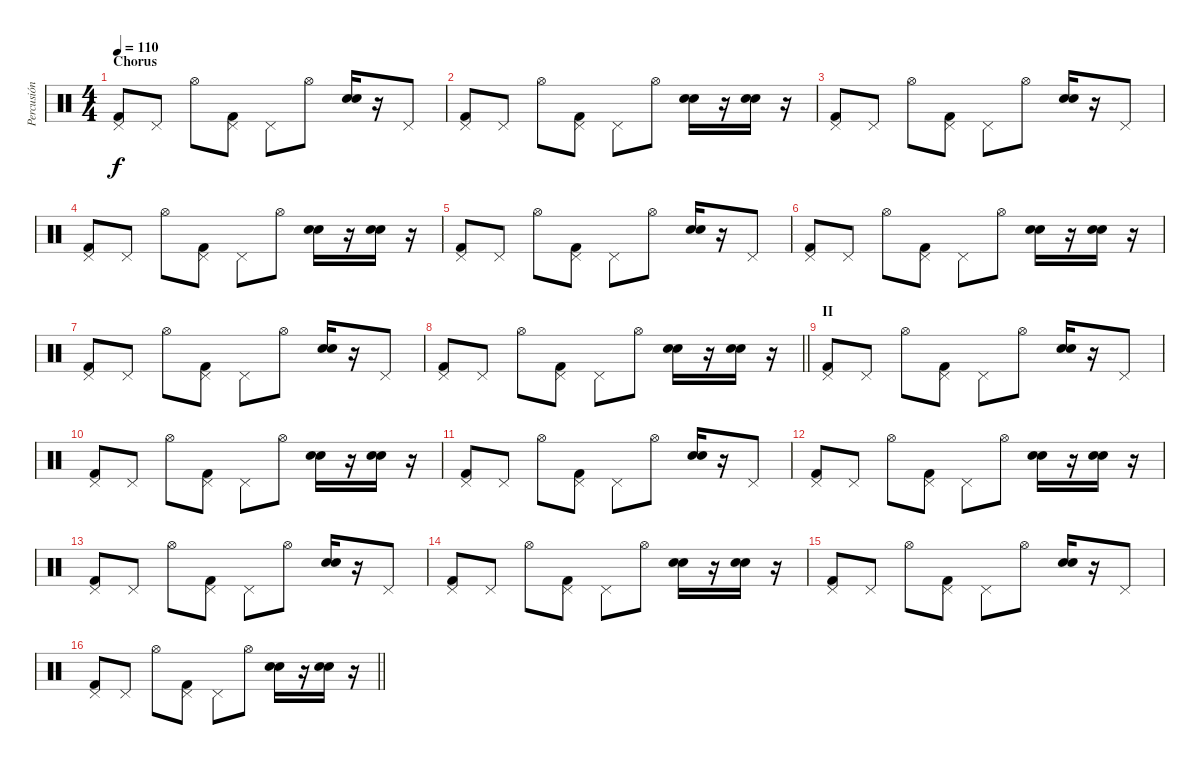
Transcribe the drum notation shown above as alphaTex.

\track ("Percusión" "Percusión") {instrument percussion}
\staff {score}
\articulation defaults
\ts (4 4)
\section ("" "Chorus")
\tempo 110
\clef neutral
\ks c
("Pedal Hi-Hat (hit)" "Kick (hit) 2").8{dy f} "Pedal Hi-Hat (hit)".8 "Hi-Hat (open)".8 ("Pedal Hi-Hat (hit)" "Kick (hit) 2").8 "Pedal Hi-Hat (hit)".8 "Hi-Hat (open)".8 ("Hand Clap (hit)" "Electric Snare (hit)").16{bd 60} r.16 "Pedal Hi-Hat (hit)".8 |
("Pedal Hi-Hat (hit)" "Kick (hit) 2").8 "Pedal Hi-Hat (hit)".8 "Hi-Hat (open)".8 ("Pedal Hi-Hat (hit)" "Kick (hit) 2").8 "Pedal Hi-Hat (hit)".8 "Hi-Hat (open)".8 ("Hand Clap (hit)" "Electric Snare (hit)").16{bd 60} r.16 ("Hand Clap (hit)" "Electric Snare (hit)").16{bd 60} r.16 |
("Pedal Hi-Hat (hit)" "Kick (hit) 2").8 "Pedal Hi-Hat (hit)".8 "Hi-Hat (open)".8 ("Pedal Hi-Hat (hit)" "Kick (hit) 2").8 "Pedal Hi-Hat (hit)".8 "Hi-Hat (open)".8 ("Hand Clap (hit)" "Electric Snare (hit)").16{bd 60} r.16 "Pedal Hi-Hat (hit)".8 |
("Pedal Hi-Hat (hit)" "Kick (hit) 2").8 "Pedal Hi-Hat (hit)".8 "Hi-Hat (open)".8 ("Pedal Hi-Hat (hit)" "Kick (hit) 2").8 "Pedal Hi-Hat (hit)".8 "Hi-Hat (open)".8 ("Hand Clap (hit)" "Electric Snare (hit)").16{bd 60} r.16 ("Hand Clap (hit)" "Electric Snare (hit)").16{bd 60} r.16 |
("Pedal Hi-Hat (hit)" "Kick (hit) 2").8 "Pedal Hi-Hat (hit)".8 "Hi-Hat (open)".8 ("Pedal Hi-Hat (hit)" "Kick (hit) 2").8 "Pedal Hi-Hat (hit)".8 "Hi-Hat (open)".8 ("Hand Clap (hit)" "Electric Snare (hit)").16{bd 60} r.16 "Pedal Hi-Hat (hit)".8 |
("Pedal Hi-Hat (hit)" "Kick (hit) 2").8 "Pedal Hi-Hat (hit)".8 "Hi-Hat (open)".8 ("Pedal Hi-Hat (hit)" "Kick (hit) 2").8 "Pedal Hi-Hat (hit)".8 "Hi-Hat (open)".8 ("Hand Clap (hit)" "Electric Snare (hit)").16{bd 60} r.16 ("Hand Clap (hit)" "Electric Snare (hit)").16{bd 60} r.16 |
("Pedal Hi-Hat (hit)" "Kick (hit) 2").8 "Pedal Hi-Hat (hit)".8 "Hi-Hat (open)".8 ("Pedal Hi-Hat (hit)" "Kick (hit) 2").8 "Pedal Hi-Hat (hit)".8 "Hi-Hat (open)".8 ("Hand Clap (hit)" "Electric Snare (hit)").16{bd 60} r.16 "Pedal Hi-Hat (hit)".8 |
\barLineRight lightlight
("Pedal Hi-Hat (hit)" "Kick (hit) 2").8 "Pedal Hi-Hat (hit)".8 "Hi-Hat (open)".8 ("Pedal Hi-Hat (hit)" "Kick (hit) 2").8 "Pedal Hi-Hat (hit)".8 "Hi-Hat (open)".8 ("Hand Clap (hit)" "Electric Snare (hit)").16{bd 60} r.16 ("Hand Clap (hit)" "Electric Snare (hit)").16{bd 60} r.16 |
\section ("" "II")
("Pedal Hi-Hat (hit)" "Kick (hit) 2").8 "Pedal Hi-Hat (hit)".8 "Hi-Hat (open)".8 ("Pedal Hi-Hat (hit)" "Kick (hit) 2").8 "Pedal Hi-Hat (hit)".8 "Hi-Hat (open)".8 ("Hand Clap (hit)" "Electric Snare (hit)").16{bd 60} r.16 "Pedal Hi-Hat (hit)".8 |
("Pedal Hi-Hat (hit)" "Kick (hit) 2").8 "Pedal Hi-Hat (hit)".8 "Hi-Hat (open)".8 ("Pedal Hi-Hat (hit)" "Kick (hit) 2").8 "Pedal Hi-Hat (hit)".8 "Hi-Hat (open)".8 ("Hand Clap (hit)" "Electric Snare (hit)").16{bd 60} r.16 ("Hand Clap (hit)" "Electric Snare (hit)").16{bd 60} r.16 |
("Pedal Hi-Hat (hit)" "Kick (hit) 2").8 "Pedal Hi-Hat (hit)".8 "Hi-Hat (open)".8 ("Pedal Hi-Hat (hit)" "Kick (hit) 2").8 "Pedal Hi-Hat (hit)".8 "Hi-Hat (open)".8 ("Hand Clap (hit)" "Electric Snare (hit)").16{bd 60} r.16 "Pedal Hi-Hat (hit)".8 |
("Pedal Hi-Hat (hit)" "Kick (hit) 2").8 "Pedal Hi-Hat (hit)".8 "Hi-Hat (open)".8 ("Pedal Hi-Hat (hit)" "Kick (hit) 2").8 "Pedal Hi-Hat (hit)".8 "Hi-Hat (open)".8 ("Hand Clap (hit)" "Electric Snare (hit)").16{bd 60} r.16 ("Hand Clap (hit)" "Electric Snare (hit)").16{bd 60} r.16 |
("Pedal Hi-Hat (hit)" "Kick (hit) 2").8 "Pedal Hi-Hat (hit)".8 "Hi-Hat (open)".8 ("Pedal Hi-Hat (hit)" "Kick (hit) 2").8 "Pedal Hi-Hat (hit)".8 "Hi-Hat (open)".8 ("Hand Clap (hit)" "Electric Snare (hit)").16{bd 60} r.16 "Pedal Hi-Hat (hit)".8 |
("Pedal Hi-Hat (hit)" "Kick (hit) 2").8 "Pedal Hi-Hat (hit)".8 "Hi-Hat (open)".8 ("Pedal Hi-Hat (hit)" "Kick (hit) 2").8 "Pedal Hi-Hat (hit)".8 "Hi-Hat (open)".8 ("Hand Clap (hit)" "Electric Snare (hit)").16{bd 60} r.16 ("Hand Clap (hit)" "Electric Snare (hit)").16{bd 60} r.16 |
("Pedal Hi-Hat (hit)" "Kick (hit) 2").8 "Pedal Hi-Hat (hit)".8 "Hi-Hat (open)".8 ("Pedal Hi-Hat (hit)" "Kick (hit) 2").8 "Pedal Hi-Hat (hit)".8 "Hi-Hat (open)".8 ("Hand Clap (hit)" "Electric Snare (hit)").16{bd 60} r.16 "Pedal Hi-Hat (hit)".8 |
\barLineRight lightlight
("Pedal Hi-Hat (hit)" "Kick (hit) 2").8 "Pedal Hi-Hat (hit)".8 "Hi-Hat (open)".8 ("Pedal Hi-Hat (hit)" "Kick (hit) 2").8 "Pedal Hi-Hat (hit)".8 "Hi-Hat (open)".8 ("Hand Clap (hit)" "Electric Snare (hit)").16{bd 60} r.16 ("Hand Clap (hit)" "Electric Snare (hit)").16{bd 60} r.16
